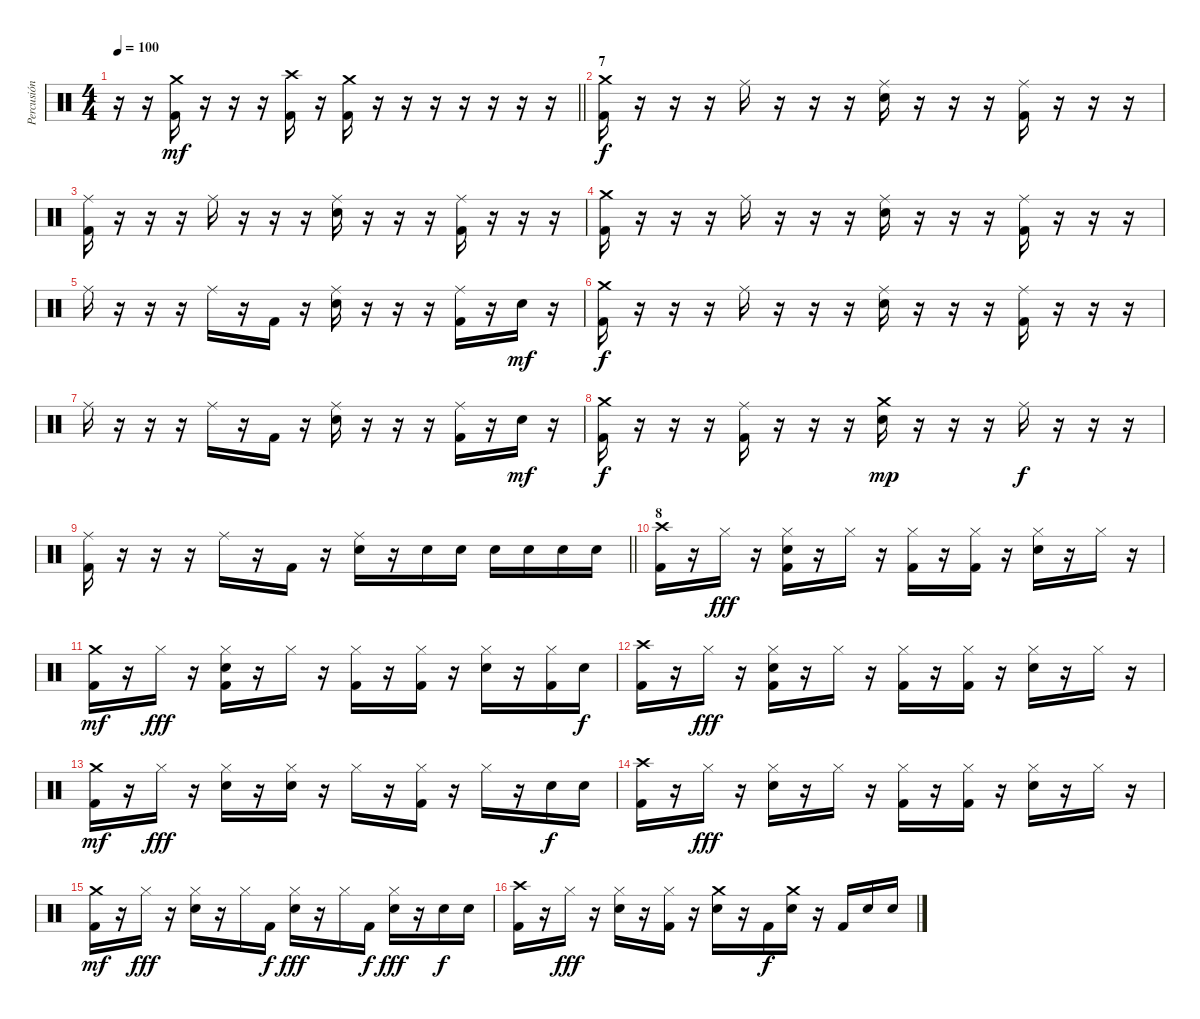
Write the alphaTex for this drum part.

\track ("Percusión" "Percusión") {instrument percussion}
\staff {score}
\articulation defaults
\ts (4 4)
\tempo 100
\clef neutral
\barLineRight lightlight
\ks c
r.16{dy mf} r.16 ("Crash medium (hit)" "Kick (hit) 2").16 r.16 r.16 r.16 ("Crash high (hit)" "Kick (hit) 2").16 r.16 ("Crash medium (hit)" "Kick (hit) 2").16 r.16 r.16 r.16 r.16 r.16 r.16 r.16 |
\section ("" "7")
("Crash medium (hit)" "Kick (hit) 2").16{dy f} r.16 r.16 r.16 "Ride (middle)".16 r.16 r.16 r.16 ("Ride (middle)" "Electric Snare (hit)").16 r.16 r.16 r.16 ("Ride (middle)" "Kick (hit) 2").16 r.16 r.16 r.16 |
("Ride (middle)" "Kick (hit) 2").16 r.16 r.16 r.16 "Ride (middle)".16 r.16 r.16 r.16 ("Ride (middle)" "Electric Snare (hit)").16 r.16 r.16 r.16 ("Ride (middle)" "Kick (hit) 2").16 r.16 r.16 r.16 |
("Crash medium (hit)" "Kick (hit) 2").16 r.16 r.16 r.16 "Ride (middle)".16 r.16 r.16 r.16 ("Ride (middle)" "Electric Snare (hit)").16 r.16 r.16 r.16 ("Ride (middle)" "Kick (hit) 2").16 r.16 r.16 r.16 |
"Ride (middle)".16 r.16 r.16 r.16 "Ride (middle)".16 r.16 "Kick (hit) 2".16 r.16 ("Ride (middle)" "Electric Snare (hit)").16 r.16 r.16 r.16 ("Ride (middle)" "Kick (hit) 2").16 r.16 "Electric Snare (hit)".16{dy mf} r.16 |
("Crash medium (hit)" "Kick (hit) 2").16{dy f} r.16 r.16 r.16 "Ride (middle)".16 r.16 r.16 r.16 ("Ride (middle)" "Electric Snare (hit)").16 r.16 r.16 r.16 ("Ride (middle)" "Kick (hit) 2").16 r.16 r.16 r.16 |
"Ride (middle)".16 r.16 r.16 r.16 "Ride (middle)".16 r.16 "Kick (hit) 2".16 r.16 ("Ride (middle)" "Electric Snare (hit)").16 r.16 r.16 r.16 ("Ride (middle)" "Kick (hit) 2").16 r.16 "Electric Snare (hit)".16{dy mf} r.16 |
("Crash medium (hit)" "Kick (hit) 2").16{dy f} r.16 r.16 r.16 ("Ride (middle)" "Kick (hit) 2").16 r.16 r.16 r.16 ("Crash medium (hit)" "Electric Snare (hit)").16{dy mp} r.16 r.16 r.16 "Ride (middle)".16{dy f} r.16 r.16 r.16 |
\barLineRight lightlight
("Ride (middle)" "Kick (hit) 2").16 r.16 r.16 r.16 "Ride (middle)".16 r.16 "Kick (hit) 2".16 r.16 ("Ride (middle)" "Electric Snare (hit)").16 r.16 "Electric Snare (hit)".16 "Electric Snare (hit)".16 "Electric Snare (hit)".16 "Electric Snare (hit)".16 "Electric Snare (hit)".16 "Electric Snare (hit)".16 |
\section ("" "8")
("Crash high (hit)" "Kick (hit) 2").16 r.16 "Hi-Hat (closed)".16{dy fff} r.16 ("Hi-Hat (closed)" "Electric Snare (hit)" "Kick (hit) 2").16 r.16 "Hi-Hat (closed)".16 r.16 ("Hi-Hat (closed)" "Kick (hit) 2").16 r.16 ("Hi-Hat (closed)" "Kick (hit) 2").16 r.16 ("Hi-Hat (closed)" "Electric Snare (hit)").16 r.16 "Hi-Hat (closed)".16 r.16 |
("Crash medium (hit)" "Kick (hit) 2").16{dy mf} r.16 "Hi-Hat (closed)".16{dy fff} r.16 ("Hi-Hat (closed)" "Electric Snare (hit)" "Kick (hit) 2").16 r.16 "Hi-Hat (closed)".16 r.16 ("Hi-Hat (closed)" "Kick (hit) 2").16 r.16 ("Hi-Hat (closed)" "Kick (hit) 2").16 r.16 ("Hi-Hat (closed)" "Electric Snare (hit)").16 r.16 ("Hi-Hat (closed)" "Kick (hit) 2").16 "Electric Snare (hit)".16{dy f} |
("Crash high (hit)" "Kick (hit) 2").16 r.16 "Hi-Hat (closed)".16{dy fff} r.16 ("Hi-Hat (closed)" "Electric Snare (hit)" "Kick (hit) 2").16 r.16 "Hi-Hat (closed)".16 r.16 ("Hi-Hat (closed)" "Kick (hit) 2").16 r.16 ("Hi-Hat (closed)" "Kick (hit) 2").16 r.16 ("Hi-Hat (closed)" "Electric Snare (hit)").16 r.16 "Hi-Hat (closed)".16 r.16 |
("Crash medium (hit)" "Kick (hit) 2").16{dy mf} r.16 "Hi-Hat (closed)".16{dy fff} r.16 ("Hi-Hat (closed)" "Electric Snare (hit)").16 r.16 ("Hi-Hat (closed)" "Electric Snare (hit)").16 r.16 "Hi-Hat (closed)".16 r.16 ("Hi-Hat (closed)" "Kick (hit) 2").16 r.16 "Hi-Hat (closed)".16 r.16 "Electric Snare (hit)".16{dy f} "Electric Snare (hit)".16 |
("Crash high (hit)" "Kick (hit) 2").16 r.16 "Hi-Hat (closed)".16{dy fff} r.16 ("Hi-Hat (closed)" "Electric Snare (hit)").16 r.16 "Hi-Hat (closed)".16 r.16 ("Hi-Hat (closed)" "Kick (hit) 2").16 r.16 ("Hi-Hat (closed)" "Kick (hit) 2").16 r.16 ("Hi-Hat (closed)" "Electric Snare (hit)").16 r.16 "Hi-Hat (closed)".16 r.16 |
("Crash medium (hit)" "Kick (hit) 2").16{dy mf} r.16 "Hi-Hat (closed)".16{dy fff} r.16 ("Hi-Hat (closed)" "Electric Snare (hit)").16 r.16 "Hi-Hat (closed)".16 "Kick (hit) 2".16{dy f} ("Hi-Hat (closed)" "Electric Snare (hit)").16{dy fff} r.16 "Hi-Hat (closed)".16 "Kick (hit) 2".16{dy f} ("Hi-Hat (closed)" "Electric Snare (hit)").16{dy fff} r.16 "Electric Snare (hit)".16{dy f} "Electric Snare (hit)".16 |
("Crash high (hit)" "Kick (hit) 2").16 r.16 "Hi-Hat (closed)".16{dy fff} r.16 ("Hi-Hat (closed)" "Electric Snare (hit)").16 r.16 ("Hi-Hat (closed)" "Kick (hit) 2").16 r.16 ("Crash medium (hit)" "Electric Snare (hit)").16 r.16 "Kick (hit) 2".16{dy f} ("Crash medium (hit)" "Electric Snare (hit)").16 r.16 "Kick (hit) 2".16 "Electric Snare (hit)".16 "Electric Snare (hit)".16
